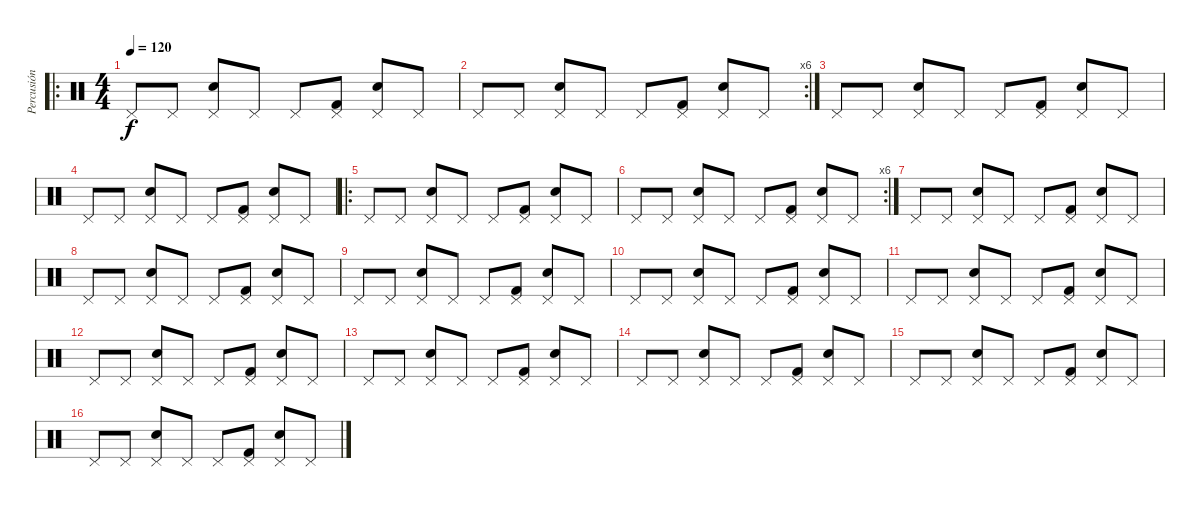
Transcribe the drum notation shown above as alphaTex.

\track ("Percusión" "Percusión") {instrument percussion}
\staff {score}
\articulation defaults
\ro
\ts (4 4)
\tempo 120
\clef neutral
\ks c "Pedal Hi-Hat (hit)".8{dy f} "Pedal Hi-Hat (hit)".8
("Pedal Hi-Hat (hit)" "Snare (hit) 2").8 "Pedal Hi-Hat (hit)".8 "Pedal Hi-Hat (hit)".8 ("Pedal Hi-Hat (hit)" "Kick (hit) 2").8 ("Pedal Hi-Hat (hit)" "Snare (hit) 2").8 "Pedal Hi-Hat (hit)".8 |
\rc 6 "Pedal Hi-Hat (hit)".8 "Pedal Hi-Hat (hit)".8
("Pedal Hi-Hat (hit)" "Snare (hit) 2").8 "Pedal Hi-Hat (hit)".8 "Pedal Hi-Hat (hit)".8 ("Pedal Hi-Hat (hit)" "Kick (hit) 2").8 ("Pedal Hi-Hat (hit)" "Snare (hit) 2").8 "Pedal Hi-Hat (hit)".8 |
"Pedal Hi-Hat (hit)".8 "Pedal Hi-Hat (hit)".8 ("Pedal Hi-Hat (hit)" "Snare (hit) 2").8 "Pedal Hi-Hat (hit)".8 "Pedal Hi-Hat (hit)".8 ("Pedal Hi-Hat (hit)" "Kick (hit) 2").8 ("Pedal Hi-Hat (hit)" "Snare (hit) 2").8 "Pedal Hi-Hat (hit)".8 |
"Pedal Hi-Hat (hit)".8 "Pedal Hi-Hat (hit)".8 ("Pedal Hi-Hat (hit)" "Snare (hit) 2").8 "Pedal Hi-Hat (hit)".8 "Pedal Hi-Hat (hit)".8 ("Pedal Hi-Hat (hit)" "Kick (hit) 2").8 ("Pedal Hi-Hat (hit)" "Snare (hit) 2").8 "Pedal Hi-Hat (hit)".8 |
\ro "Pedal Hi-Hat (hit)".8 "Pedal Hi-Hat (hit)".8
("Pedal Hi-Hat (hit)" "Snare (hit) 2").8 "Pedal Hi-Hat (hit)".8 "Pedal Hi-Hat (hit)".8 ("Pedal Hi-Hat (hit)" "Kick (hit) 2").8 ("Pedal Hi-Hat (hit)" "Snare (hit) 2").8 "Pedal Hi-Hat (hit)".8 |
\rc 6 "Pedal Hi-Hat (hit)".8 "Pedal Hi-Hat (hit)".8
("Pedal Hi-Hat (hit)" "Snare (hit) 2").8 "Pedal Hi-Hat (hit)".8 "Pedal Hi-Hat (hit)".8 ("Pedal Hi-Hat (hit)" "Kick (hit) 2").8 ("Pedal Hi-Hat (hit)" "Snare (hit) 2").8 "Pedal Hi-Hat (hit)".8 |
"Pedal Hi-Hat (hit)".8 "Pedal Hi-Hat (hit)".8 ("Pedal Hi-Hat (hit)" "Snare (hit) 2").8 "Pedal Hi-Hat (hit)".8 "Pedal Hi-Hat (hit)".8 ("Pedal Hi-Hat (hit)" "Kick (hit) 2").8 ("Pedal Hi-Hat (hit)" "Snare (hit) 2").8 "Pedal Hi-Hat (hit)".8 |
"Pedal Hi-Hat (hit)".8 "Pedal Hi-Hat (hit)".8 ("Pedal Hi-Hat (hit)" "Snare (hit) 2").8 "Pedal Hi-Hat (hit)".8 "Pedal Hi-Hat (hit)".8 ("Pedal Hi-Hat (hit)" "Kick (hit) 2").8 ("Pedal Hi-Hat (hit)" "Snare (hit) 2").8 "Pedal Hi-Hat (hit)".8 |
"Pedal Hi-Hat (hit)".8 "Pedal Hi-Hat (hit)".8 ("Pedal Hi-Hat (hit)" "Snare (hit) 2").8 "Pedal Hi-Hat (hit)".8 "Pedal Hi-Hat (hit)".8 ("Pedal Hi-Hat (hit)" "Kick (hit) 2").8 ("Pedal Hi-Hat (hit)" "Snare (hit) 2").8 "Pedal Hi-Hat (hit)".8 |
"Pedal Hi-Hat (hit)".8 "Pedal Hi-Hat (hit)".8 ("Pedal Hi-Hat (hit)" "Snare (hit) 2").8 "Pedal Hi-Hat (hit)".8 "Pedal Hi-Hat (hit)".8 ("Pedal Hi-Hat (hit)" "Kick (hit) 2").8 ("Pedal Hi-Hat (hit)" "Snare (hit) 2").8 "Pedal Hi-Hat (hit)".8 |
"Pedal Hi-Hat (hit)".8 "Pedal Hi-Hat (hit)".8 ("Pedal Hi-Hat (hit)" "Snare (hit) 2").8 "Pedal Hi-Hat (hit)".8 "Pedal Hi-Hat (hit)".8 ("Pedal Hi-Hat (hit)" "Kick (hit) 2").8 ("Pedal Hi-Hat (hit)" "Snare (hit) 2").8 "Pedal Hi-Hat (hit)".8 |
"Pedal Hi-Hat (hit)".8 "Pedal Hi-Hat (hit)".8 ("Pedal Hi-Hat (hit)" "Snare (hit) 2").8 "Pedal Hi-Hat (hit)".8 "Pedal Hi-Hat (hit)".8 ("Pedal Hi-Hat (hit)" "Kick (hit) 2").8 ("Pedal Hi-Hat (hit)" "Snare (hit) 2").8 "Pedal Hi-Hat (hit)".8 |
"Pedal Hi-Hat (hit)".8 "Pedal Hi-Hat (hit)".8 ("Pedal Hi-Hat (hit)" "Snare (hit) 2").8 "Pedal Hi-Hat (hit)".8 "Pedal Hi-Hat (hit)".8 ("Pedal Hi-Hat (hit)" "Kick (hit) 2").8 ("Pedal Hi-Hat (hit)" "Snare (hit) 2").8 "Pedal Hi-Hat (hit)".8 |
"Pedal Hi-Hat (hit)".8 "Pedal Hi-Hat (hit)".8 ("Pedal Hi-Hat (hit)" "Snare (hit) 2").8 "Pedal Hi-Hat (hit)".8 "Pedal Hi-Hat (hit)".8 ("Pedal Hi-Hat (hit)" "Kick (hit) 2").8 ("Pedal Hi-Hat (hit)" "Snare (hit) 2").8 "Pedal Hi-Hat (hit)".8 |
"Pedal Hi-Hat (hit)".8 "Pedal Hi-Hat (hit)".8 ("Pedal Hi-Hat (hit)" "Snare (hit) 2").8 "Pedal Hi-Hat (hit)".8 "Pedal Hi-Hat (hit)".8 ("Pedal Hi-Hat (hit)" "Kick (hit) 2").8 ("Pedal Hi-Hat (hit)" "Snare (hit) 2").8 "Pedal Hi-Hat (hit)".8 |
"Pedal Hi-Hat (hit)".8 "Pedal Hi-Hat (hit)".8 ("Pedal Hi-Hat (hit)" "Snare (hit) 2").8 "Pedal Hi-Hat (hit)".8 "Pedal Hi-Hat (hit)".8 ("Pedal Hi-Hat (hit)" "Kick (hit) 2").8 ("Pedal Hi-Hat (hit)" "Snare (hit) 2").8 "Pedal Hi-Hat (hit)".8
